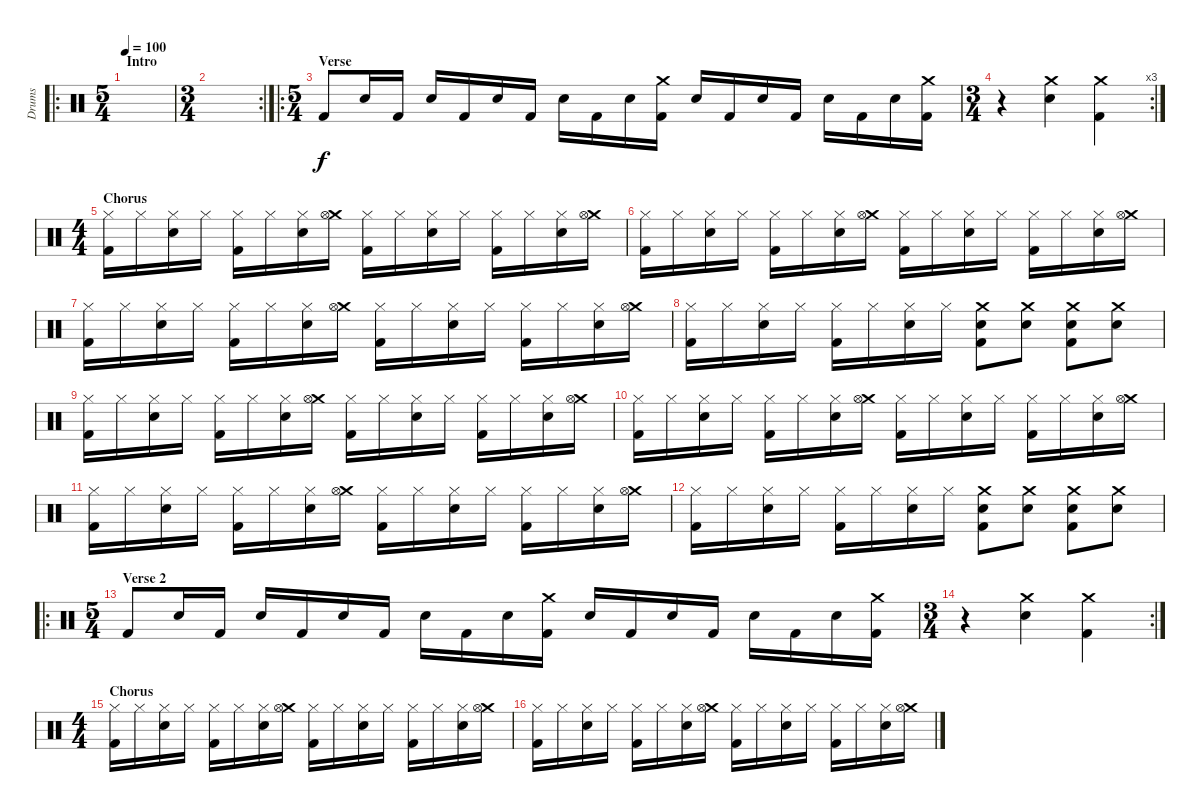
\track ("Drums" "Drums") {instrument percussion}
\staff {score}
\articulation defaults
\ro
\ts (5 4)
\section ("" "Intro")
\tempo 100
\clef neutral
\ks c
|
\rc 2
\ts (3 4)
|
\ro
\ts (5 4)
\section ("" "Verse")
"Kick (hit) 2".8 "Snare (hit) 2".16 "Kick (hit) 2".16 "Snare (hit) 2".16 "Kick (hit) 2".16 "Snare (hit) 2".16 "Kick (hit) 2".16 "Snare (hit) 2".16 "Kick (hit) 2".16 "Snare (hit) 2".16 ("Crash medium (hit)" "Kick (hit) 2").16 "Snare (hit) 2".16 "Kick (hit) 2".16 "Snare (hit) 2".16 "Kick (hit) 2".16 "Snare (hit) 2".16 "Kick (hit) 2".16 "Snare (hit) 2".16 ("Crash medium (hit)" "Kick (hit) 2").16 |
\rc 3
\ts (3 4)
r.4 ("Crash medium (hit)" "Snare (hit) 2").4 ("Crash medium (hit)" "Kick (hit) 2").4 |
\ts (4 4)
\section ("" "Chorus")
("Hi-Hat (closed)" "Kick (hit) 2").16 "Hi-Hat (closed)".16 ("Hi-Hat (closed)" "Snare (hit) 2").16 "Hi-Hat (closed)".16 ("Hi-Hat (closed)" "Kick (hit) 2").16 "Hi-Hat (closed)".16 ("Hi-Hat (closed)" "Snare (hit) 2").16 ("Crash medium (hit)" "Hi-Hat (open)").16 ("Hi-Hat (closed)" "Kick (hit) 2").16 "Hi-Hat (closed)".16 ("Hi-Hat (closed)" "Snare (hit) 2").16 "Hi-Hat (closed)".16 ("Hi-Hat (closed)" "Kick (hit) 2").16 "Hi-Hat (closed)".16 ("Hi-Hat (closed)" "Snare (hit) 2").16 ("Crash medium (hit)" "Hi-Hat (open)").16 |
("Hi-Hat (closed)" "Kick (hit) 2").16 "Hi-Hat (closed)".16 ("Hi-Hat (closed)" "Snare (hit) 2").16 "Hi-Hat (closed)".16 ("Hi-Hat (closed)" "Kick (hit) 2").16 "Hi-Hat (closed)".16 ("Hi-Hat (closed)" "Snare (hit) 2").16 ("Crash medium (hit)" "Hi-Hat (open)").16 ("Hi-Hat (closed)" "Kick (hit) 2").16 "Hi-Hat (closed)".16 ("Hi-Hat (closed)" "Snare (hit) 2").16 "Hi-Hat (closed)".16 ("Hi-Hat (closed)" "Kick (hit) 2").16 "Hi-Hat (closed)".16 ("Hi-Hat (closed)" "Snare (hit) 2").16 ("Crash medium (hit)" "Hi-Hat (open)").16 |
("Hi-Hat (closed)" "Kick (hit) 2").16 "Hi-Hat (closed)".16 ("Hi-Hat (closed)" "Snare (hit) 2").16 "Hi-Hat (closed)".16 ("Hi-Hat (closed)" "Kick (hit) 2").16 "Hi-Hat (closed)".16 ("Hi-Hat (closed)" "Snare (hit) 2").16 ("Crash medium (hit)" "Hi-Hat (open)").16 ("Hi-Hat (closed)" "Kick (hit) 2").16 "Hi-Hat (closed)".16 ("Hi-Hat (closed)" "Snare (hit) 2").16 "Hi-Hat (closed)".16 ("Hi-Hat (closed)" "Kick (hit) 2").16 "Hi-Hat (closed)".16 ("Hi-Hat (closed)" "Snare (hit) 2").16 ("Crash medium (hit)" "Hi-Hat (open)").16 |
("Hi-Hat (closed)" "Kick (hit) 2").16 "Hi-Hat (closed)".16 ("Hi-Hat (closed)" "Snare (hit) 2").16 "Hi-Hat (closed)".16 ("Hi-Hat (closed)" "Kick (hit) 2").16 "Hi-Hat (closed)".16 ("Hi-Hat (closed)" "Snare (hit) 2").16 "Hi-Hat (closed)".16 ("Crash medium (hit)" "Snare (hit) 2" "Kick (hit) 2").8 ("Crash medium (hit)" "Snare (hit) 2").8 ("Crash medium (hit)" "Snare (hit) 2" "Kick (hit) 2").8 ("Crash medium (hit)" "Snare (hit) 2").8 |
("Hi-Hat (closed)" "Kick (hit) 2").16 "Hi-Hat (closed)".16 ("Hi-Hat (closed)" "Snare (hit) 2").16 "Hi-Hat (closed)".16 ("Hi-Hat (closed)" "Kick (hit) 2").16 "Hi-Hat (closed)".16 ("Hi-Hat (closed)" "Snare (hit) 2").16 ("Crash medium (hit)" "Hi-Hat (open)").16 ("Hi-Hat (closed)" "Kick (hit) 2").16 "Hi-Hat (closed)".16 ("Hi-Hat (closed)" "Snare (hit) 2").16 "Hi-Hat (closed)".16 ("Hi-Hat (closed)" "Kick (hit) 2").16 "Hi-Hat (closed)".16 ("Hi-Hat (closed)" "Snare (hit) 2").16 ("Crash medium (hit)" "Hi-Hat (open)").16 |
("Hi-Hat (closed)" "Kick (hit) 2").16 "Hi-Hat (closed)".16 ("Hi-Hat (closed)" "Snare (hit) 2").16 "Hi-Hat (closed)".16 ("Hi-Hat (closed)" "Kick (hit) 2").16 "Hi-Hat (closed)".16 ("Hi-Hat (closed)" "Snare (hit) 2").16 ("Crash medium (hit)" "Hi-Hat (open)").16 ("Hi-Hat (closed)" "Kick (hit) 2").16 "Hi-Hat (closed)".16 ("Hi-Hat (closed)" "Snare (hit) 2").16 "Hi-Hat (closed)".16 ("Hi-Hat (closed)" "Kick (hit) 2").16 "Hi-Hat (closed)".16 ("Hi-Hat (closed)" "Snare (hit) 2").16 ("Crash medium (hit)" "Hi-Hat (open)").16 |
("Hi-Hat (closed)" "Kick (hit) 2").16 "Hi-Hat (closed)".16 ("Hi-Hat (closed)" "Snare (hit) 2").16 "Hi-Hat (closed)".16 ("Hi-Hat (closed)" "Kick (hit) 2").16 "Hi-Hat (closed)".16 ("Hi-Hat (closed)" "Snare (hit) 2").16 ("Crash medium (hit)" "Hi-Hat (open)").16 ("Hi-Hat (closed)" "Kick (hit) 2").16 "Hi-Hat (closed)".16 ("Hi-Hat (closed)" "Snare (hit) 2").16 "Hi-Hat (closed)".16 ("Hi-Hat (closed)" "Kick (hit) 2").16 "Hi-Hat (closed)".16 ("Hi-Hat (closed)" "Snare (hit) 2").16 ("Crash medium (hit)" "Hi-Hat (open)").16 |
("Hi-Hat (closed)" "Kick (hit) 2").16 "Hi-Hat (closed)".16 ("Hi-Hat (closed)" "Snare (hit) 2").16 "Hi-Hat (closed)".16 ("Hi-Hat (closed)" "Kick (hit) 2").16 "Hi-Hat (closed)".16 ("Hi-Hat (closed)" "Snare (hit) 2").16 "Hi-Hat (closed)".16 ("Crash medium (hit)" "Snare (hit) 2" "Kick (hit) 2").8 ("Crash medium (hit)" "Snare (hit) 2").8 ("Crash medium (hit)" "Snare (hit) 2" "Kick (hit) 2").8 ("Crash medium (hit)" "Snare (hit) 2").8 |
\ro
\ts (5 4)
\section ("" "Verse 2")
"Kick (hit) 2".8 "Snare (hit) 2".16 "Kick (hit) 2".16 "Snare (hit) 2".16 "Kick (hit) 2".16 "Snare (hit) 2".16 "Kick (hit) 2".16 "Snare (hit) 2".16 "Kick (hit) 2".16 "Snare (hit) 2".16 ("Crash medium (hit)" "Kick (hit) 2").16 "Snare (hit) 2".16 "Kick (hit) 2".16 "Snare (hit) 2".16 "Kick (hit) 2".16 "Snare (hit) 2".16 "Kick (hit) 2".16 "Snare (hit) 2".16 ("Crash medium (hit)" "Kick (hit) 2").16 |
\rc 2
\ts (3 4)
r.4 ("Crash medium (hit)" "Snare (hit) 2").4 ("Crash medium (hit)" "Kick (hit) 2").4 |
\ts (4 4)
\section ("" "Chorus")
("Hi-Hat (closed)" "Kick (hit) 2").16 "Hi-Hat (closed)".16 ("Hi-Hat (closed)" "Snare (hit) 2").16 "Hi-Hat (closed)".16 ("Hi-Hat (closed)" "Kick (hit) 2").16 "Hi-Hat (closed)".16 ("Hi-Hat (closed)" "Snare (hit) 2").16 ("Crash medium (hit)" "Hi-Hat (open)").16 ("Hi-Hat (closed)" "Kick (hit) 2").16 "Hi-Hat (closed)".16 ("Hi-Hat (closed)" "Snare (hit) 2").16 "Hi-Hat (closed)".16 ("Hi-Hat (closed)" "Kick (hit) 2").16 "Hi-Hat (closed)".16 ("Hi-Hat (closed)" "Snare (hit) 2").16 ("Crash medium (hit)" "Hi-Hat (open)").16 |
("Hi-Hat (closed)" "Kick (hit) 2").16 "Hi-Hat (closed)".16 ("Hi-Hat (closed)" "Snare (hit) 2").16 "Hi-Hat (closed)".16 ("Hi-Hat (closed)" "Kick (hit) 2").16 "Hi-Hat (closed)".16 ("Hi-Hat (closed)" "Snare (hit) 2").16 ("Crash medium (hit)" "Hi-Hat (open)").16 ("Hi-Hat (closed)" "Kick (hit) 2").16 "Hi-Hat (closed)".16 ("Hi-Hat (closed)" "Snare (hit) 2").16 "Hi-Hat (closed)".16 ("Hi-Hat (closed)" "Kick (hit) 2").16 "Hi-Hat (closed)".16 ("Hi-Hat (closed)" "Snare (hit) 2").16 ("Crash medium (hit)" "Hi-Hat (open)").16
